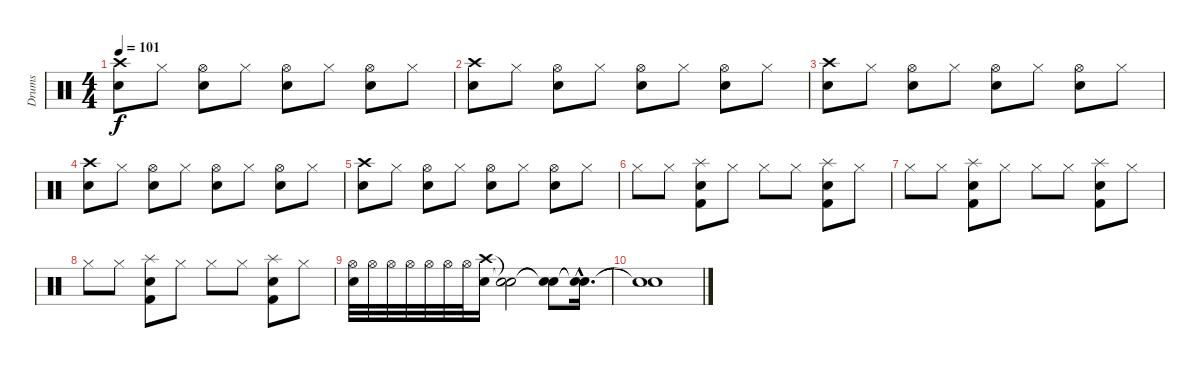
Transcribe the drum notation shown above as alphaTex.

\track ("Drums" "Drums") {instrument percussion}
\staff {score}
\articulation defaults
\ts (4 4)
\tempo 101
\clef neutral
\ks c
("Crash high (hit)" "Snare (hit) 2").8{dy f} "Hi-Hat (closed)".8 ("Hi-Hat (open)" "Snare (hit) 2").8 "Hi-Hat (closed)".8 ("Hi-Hat (open)" "Snare (hit) 2").8 "Hi-Hat (closed)".8 ("Hi-Hat (open)" "Snare (hit) 2").8 "Hi-Hat (closed)".8 |
("Crash high (hit)" "Snare (hit) 2").8 "Hi-Hat (closed)".8 ("Hi-Hat (open)" "Snare (hit) 2").8 "Hi-Hat (closed)".8 ("Hi-Hat (open)" "Snare (hit) 2").8 "Hi-Hat (closed)".8 ("Hi-Hat (open)" "Snare (hit) 2").8 "Hi-Hat (closed)".8 |
("Crash high (hit)" "Snare (hit) 2").8 "Hi-Hat (closed)".8 ("Hi-Hat (open)" "Snare (hit) 2").8 "Hi-Hat (closed)".8 ("Hi-Hat (open)" "Snare (hit) 2").8 "Hi-Hat (closed)".8 ("Hi-Hat (open)" "Snare (hit) 2").8 "Hi-Hat (closed)".8 |
("Crash high (hit)" "Snare (hit) 2").8 "Hi-Hat (closed)".8 ("Hi-Hat (open)" "Snare (hit) 2").8 "Hi-Hat (closed)".8 ("Hi-Hat (open)" "Snare (hit) 2").8 "Hi-Hat (closed)".8 ("Hi-Hat (open)" "Snare (hit) 2").8 "Hi-Hat (closed)".8 |
("Crash high (hit)" "Snare (hit) 2").8 "Hi-Hat (closed)".8 ("Hi-Hat (open)" "Snare (hit) 2").8 "Hi-Hat (closed)".8 ("Hi-Hat (open)" "Snare (hit) 2").8 "Hi-Hat (closed)".8 ("Hi-Hat (open)" "Snare (hit) 2").8 "Hi-Hat (closed)".8 |
"Hi-Hat (closed)".8 "Hi-Hat (closed)".8 ("Snare (hit) 2" "Splash (hit)" "Kick (hit) 2").8 "Hi-Hat (closed)".8 "Hi-Hat (closed)".8 "Hi-Hat (closed)".8 ("Snare (hit) 2" "Splash (hit)" "Kick (hit) 2").8 "Hi-Hat (closed)".8 |
"Hi-Hat (closed)".8 "Hi-Hat (closed)".8 ("Snare (hit) 2" "Splash (hit)" "Kick (hit) 2").8 "Hi-Hat (closed)".8 "Hi-Hat (closed)".8 "Hi-Hat (closed)".8 ("Snare (hit) 2" "Splash (hit)" "Kick (hit) 2").8 "Hi-Hat (closed)".8 |
"Hi-Hat (closed)".8 "Hi-Hat (closed)".8 ("Snare (hit) 2" "Splash (hit)" "Kick (hit) 2").8 "Hi-Hat (closed)".8 "Hi-Hat (closed)".8 "Hi-Hat (closed)".8 ("Snare (hit) 2" "Splash (hit)" "Kick (hit) 2").8 "Hi-Hat (closed)".8 |
("Hi-Hat (open)" "Snare (hit) 2").32 "Hi-Hat (open)".32 "Hi-Hat (open)".32 "Hi-Hat (open)".32 "Hi-Hat (open)".32 "Hi-Hat (open)".32 "Hi-Hat (open)".32 ("Crash high (hit)" "Snare (hit) 2").16 ("Snare (hit)"{t} "Snare (hit)"{t}).2 ("Snare (hit)"{t} "Snare (hit)"{t}).8 ("Snare (hit)"{hac t} "Snare (hit)"{hac t}).16{d} |
("Snare (hit)"{t} "Snare (hit)"{t}).1
